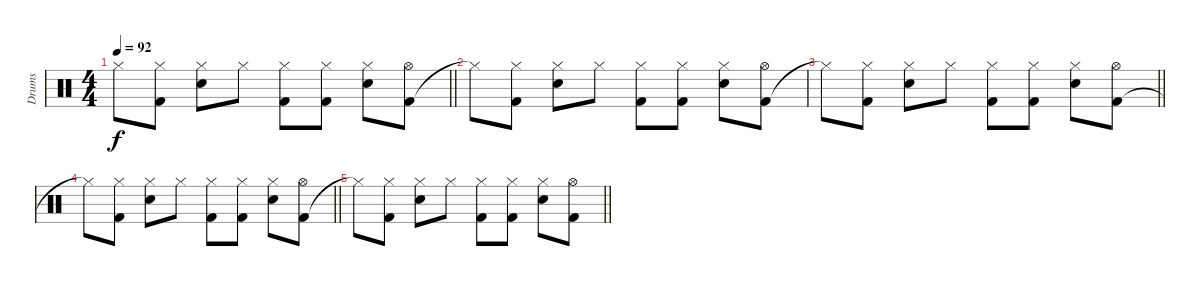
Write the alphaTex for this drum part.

\track ("Drums" "Drums") {instrument percussion}
\staff {score}
\articulation defaults
\ts (4 4)
\tempo 92
\clef neutral
\barLineRight lightlight
\ks c "Hi-Hat (closed)"{t}.8{dy f}
("Kick (hit) 2" "Hi-Hat (closed)").8 ("Electric Snare (hit)" "Hi-Hat (closed)").8 "Hi-Hat (closed)".8 ("Kick (hit) 2" "Hi-Hat (closed)").8 ("Kick (hit) 2" "Hi-Hat (closed)").8 ("Electric Snare (hit)" "Hi-Hat (closed)").8 ("Kick (hit) 2" "Hi-Hat (open)").8 |
"Hi-Hat (closed)"{t}.8 ("Kick (hit) 2" "Hi-Hat (closed)").8 ("Electric Snare (hit)" "Hi-Hat (closed)").8 "Hi-Hat (closed)".8 ("Kick (hit) 2" "Hi-Hat (closed)").8 ("Kick (hit) 2" "Hi-Hat (closed)").8 ("Electric Snare (hit)" "Hi-Hat (closed)").8 ("Kick (hit) 2" "Hi-Hat (open)").8 |
\barLineRight lightlight "Hi-Hat (closed)"{t}.8
("Kick (hit) 2" "Hi-Hat (closed)").8 ("Electric Snare (hit)" "Hi-Hat (closed)").8 "Hi-Hat (closed)".8 ("Kick (hit) 2" "Hi-Hat (closed)").8 ("Kick (hit) 2" "Hi-Hat (closed)").8 ("Electric Snare (hit)" "Hi-Hat (closed)").8 ("Kick (hit) 2" "Hi-Hat (open)").8 |
\barLineRight lightlight "Hi-Hat (closed)"{t}.8
("Kick (hit) 2" "Hi-Hat (closed)").8 ("Electric Snare (hit)" "Hi-Hat (closed)").8 "Hi-Hat (closed)".8 ("Kick (hit) 2" "Hi-Hat (closed)").8 ("Kick (hit) 2" "Hi-Hat (closed)").8 ("Electric Snare (hit)" "Hi-Hat (closed)").8 ("Kick (hit) 2" "Hi-Hat (open)").8 |
\barLineRight lightlight "Hi-Hat (closed)"{t}.8
("Kick (hit) 2" "Hi-Hat (closed)").8 ("Electric Snare (hit)" "Hi-Hat (closed)").8 "Hi-Hat (closed)".8 ("Kick (hit) 2" "Hi-Hat (closed)").8 ("Kick (hit) 2" "Hi-Hat (closed)").8 ("Electric Snare (hit)" "Hi-Hat (closed)").8 ("Kick (hit) 2" "Hi-Hat (open)").8
